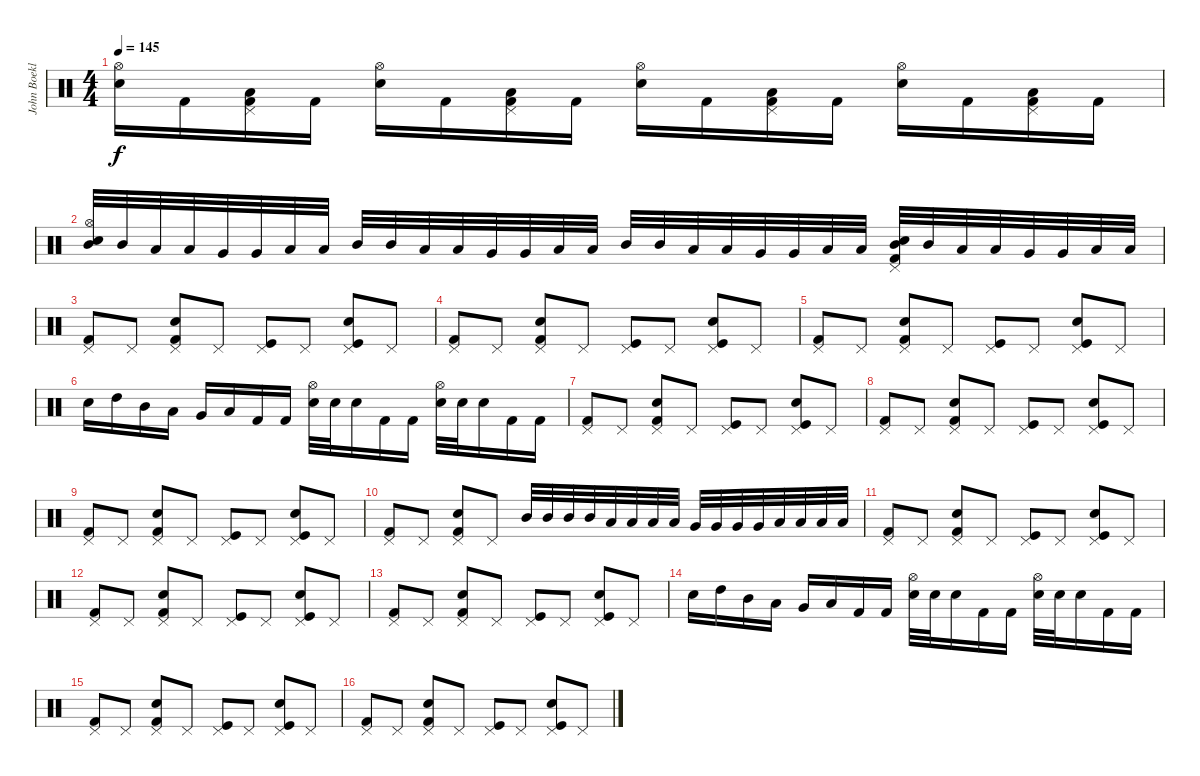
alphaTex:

\track ("John Boeklin" "John Boekl") {instrument percussion}
\staff {score}
\articulation defaults
\ts (4 4)
\tempo 145
\clef neutral
\ks c
("Electric Snare (hit)" "Hi-Hat (open)").16{dy f} "Kick (hit) 2".16 ("Low Floor Tom (hit)" "Pedal Hi-Hat (hit)" "Kick (hit) 2").16 "Kick (hit) 2".16 ("Electric Snare (hit)" "Hi-Hat (open)").16 "Kick (hit) 2".16 ("Low Floor Tom (hit)" "Pedal Hi-Hat (hit)" "Kick (hit) 2").16 "Kick (hit) 2".16 ("Electric Snare (hit)" "Hi-Hat (open)").16 "Kick (hit) 2".16 ("Low Floor Tom (hit)" "Pedal Hi-Hat (hit)" "Kick (hit) 2").16 "Kick (hit) 2".16 ("Electric Snare (hit)" "Hi-Hat (open)").16 "Kick (hit) 2".16 ("Low Floor Tom (hit)" "Pedal Hi-Hat (hit)" "Kick (hit) 2").16 "Kick (hit) 2".16 |
("Electric Snare (hit)" "Hi-Hat (open)" "Mid Tom (hit)").32 "Mid Tom (hit)".32 "Low Tom (hit)".32 "Low Tom (hit)".32 "Very Low Tom (hit)".32 "Very Low Tom (hit)".32 "Low Floor Tom (hit)".32 "Low Floor Tom (hit)".32 "Mid Tom (hit)".32 "Mid Tom (hit)".32 "Low Tom (hit)".32 "Low Tom (hit)".32 "Very Low Tom (hit)".32 "Very Low Tom (hit)".32 "Low Floor Tom (hit)".32 "Low Floor Tom (hit)".32 "Mid Tom (hit)".32 "Mid Tom (hit)".32 "Low Tom (hit)".32 "Low Tom (hit)".32 "Very Low Tom (hit)".32 "Very Low Tom (hit)".32 "Low Floor Tom (hit)".32 "Low Floor Tom (hit)".32 ("Electric Snare (hit)" "Pedal Hi-Hat (hit)" "Mid Tom (hit)" "Kick (hit) 2").32 "Mid Tom (hit)".32 "Low Tom (hit)".32 "Low Tom (hit)".32 "Very Low Tom (hit)".32 "Very Low Tom (hit)".32 "Low Floor Tom (hit)".32 "Low Floor Tom (hit)".32 |
("Pedal Hi-Hat (hit)" "Kick (hit) 2").8 "Pedal Hi-Hat (hit)".8 ("Pedal Hi-Hat (hit)" "Electric Snare (hit)" "Kick (hit) 2").8 "Pedal Hi-Hat (hit)".8 ("Pedal Hi-Hat (hit)" "Kick (hit)").8 "Pedal Hi-Hat (hit)".8 ("Pedal Hi-Hat (hit)" "Electric Snare (hit)" "Kick (hit)").8 "Pedal Hi-Hat (hit)".8 |
("Pedal Hi-Hat (hit)" "Kick (hit) 2").8 "Pedal Hi-Hat (hit)".8 ("Pedal Hi-Hat (hit)" "Electric Snare (hit)" "Kick (hit) 2").8 "Pedal Hi-Hat (hit)".8 ("Pedal Hi-Hat (hit)" "Kick (hit)").8 "Pedal Hi-Hat (hit)".8 ("Pedal Hi-Hat (hit)" "Electric Snare (hit)" "Kick (hit)").8 "Pedal Hi-Hat (hit)".8 |
("Pedal Hi-Hat (hit)" "Kick (hit) 2").8 "Pedal Hi-Hat (hit)".8 ("Pedal Hi-Hat (hit)" "Electric Snare (hit)" "Kick (hit) 2").8 "Pedal Hi-Hat (hit)".8 ("Pedal Hi-Hat (hit)" "Kick (hit)").8 "Pedal Hi-Hat (hit)".8 ("Pedal Hi-Hat (hit)" "Electric Snare (hit)" "Kick (hit)").8 "Pedal Hi-Hat (hit)".8 |
"Electric Snare (hit)".16 "High Tom (hit)".16 "Mid Tom (hit)".16 "Low Tom (hit)".16 "Very Low Tom (hit)".16 "Low Floor Tom (hit)".16 "Kick (hit) 2".16 "Kick (hit) 2".16 ("Hi-Hat (open)" "Electric Snare (hit)").32 "Electric Snare (hit)".32 "Electric Snare (hit)".16 "Kick (hit) 2".16 "Kick (hit) 2".16 ("Hi-Hat (open)" "Electric Snare (hit)").32 "Electric Snare (hit)".32 "Electric Snare (hit)".16 "Kick (hit) 2".16 "Kick (hit) 2".16 |
("Pedal Hi-Hat (hit)" "Kick (hit) 2").8 "Pedal Hi-Hat (hit)".8 ("Pedal Hi-Hat (hit)" "Electric Snare (hit)" "Kick (hit) 2").8 "Pedal Hi-Hat (hit)".8 ("Pedal Hi-Hat (hit)" "Kick (hit)").8 "Pedal Hi-Hat (hit)".8 ("Pedal Hi-Hat (hit)" "Electric Snare (hit)" "Kick (hit)").8 "Pedal Hi-Hat (hit)".8 |
("Pedal Hi-Hat (hit)" "Kick (hit) 2").8 "Pedal Hi-Hat (hit)".8 ("Pedal Hi-Hat (hit)" "Electric Snare (hit)" "Kick (hit) 2").8 "Pedal Hi-Hat (hit)".8 ("Pedal Hi-Hat (hit)" "Kick (hit)").8 "Pedal Hi-Hat (hit)".8 ("Pedal Hi-Hat (hit)" "Electric Snare (hit)" "Kick (hit)").8 "Pedal Hi-Hat (hit)".8 |
("Pedal Hi-Hat (hit)" "Kick (hit) 2").8 "Pedal Hi-Hat (hit)".8 ("Pedal Hi-Hat (hit)" "Electric Snare (hit)" "Kick (hit) 2").8 "Pedal Hi-Hat (hit)".8 ("Pedal Hi-Hat (hit)" "Kick (hit)").8 "Pedal Hi-Hat (hit)".8 ("Pedal Hi-Hat (hit)" "Electric Snare (hit)" "Kick (hit)").8 "Pedal Hi-Hat (hit)".8 |
("Pedal Hi-Hat (hit)" "Kick (hit) 2").8 "Pedal Hi-Hat (hit)".8 ("Pedal Hi-Hat (hit)" "Electric Snare (hit)" "Kick (hit) 2").8 "Pedal Hi-Hat (hit)".8 "Mid Tom (hit)".32 "Mid Tom (hit)".32 "Mid Tom (hit)".32 "Mid Tom (hit)".32 "Low Tom (hit)".32 "Low Tom (hit)".32 "Low Tom (hit)".32 "Low Tom (hit)".32 "Very Low Tom (hit)".32 "Very Low Tom (hit)".32 "Very Low Tom (hit)".32 "Very Low Tom (hit)".32 "Low Floor Tom (hit)".32 "Low Floor Tom (hit)".32 "Low Floor Tom (hit)".32 "Low Floor Tom (hit)".32 |
("Pedal Hi-Hat (hit)" "Kick (hit) 2").8 "Pedal Hi-Hat (hit)".8 ("Pedal Hi-Hat (hit)" "Electric Snare (hit)" "Kick (hit) 2").8 "Pedal Hi-Hat (hit)".8 ("Pedal Hi-Hat (hit)" "Kick (hit)").8 "Pedal Hi-Hat (hit)".8 ("Pedal Hi-Hat (hit)" "Electric Snare (hit)" "Kick (hit)").8 "Pedal Hi-Hat (hit)".8 |
("Pedal Hi-Hat (hit)" "Kick (hit) 2").8 "Pedal Hi-Hat (hit)".8 ("Pedal Hi-Hat (hit)" "Electric Snare (hit)" "Kick (hit) 2").8 "Pedal Hi-Hat (hit)".8 ("Pedal Hi-Hat (hit)" "Kick (hit)").8 "Pedal Hi-Hat (hit)".8 ("Pedal Hi-Hat (hit)" "Electric Snare (hit)" "Kick (hit)").8 "Pedal Hi-Hat (hit)".8 |
("Pedal Hi-Hat (hit)" "Kick (hit) 2").8 "Pedal Hi-Hat (hit)".8 ("Pedal Hi-Hat (hit)" "Electric Snare (hit)" "Kick (hit) 2").8 "Pedal Hi-Hat (hit)".8 ("Pedal Hi-Hat (hit)" "Kick (hit)").8 "Pedal Hi-Hat (hit)".8 ("Pedal Hi-Hat (hit)" "Electric Snare (hit)" "Kick (hit)").8 "Pedal Hi-Hat (hit)".8 |
"Electric Snare (hit)".16 "High Tom (hit)".16 "Mid Tom (hit)".16 "Low Tom (hit)".16 "Very Low Tom (hit)".16 "Low Floor Tom (hit)".16 "Kick (hit) 2".16 "Kick (hit) 2".16 ("Hi-Hat (open)" "Electric Snare (hit)").32 "Electric Snare (hit)".32 "Electric Snare (hit)".16 "Kick (hit) 2".16 "Kick (hit) 2".16 ("Hi-Hat (open)" "Electric Snare (hit)").32 "Electric Snare (hit)".32 "Electric Snare (hit)".16 "Kick (hit) 2".16 "Kick (hit) 2".16 |
("Pedal Hi-Hat (hit)" "Kick (hit) 2").8 "Pedal Hi-Hat (hit)".8 ("Pedal Hi-Hat (hit)" "Electric Snare (hit)" "Kick (hit) 2").8 "Pedal Hi-Hat (hit)".8 ("Pedal Hi-Hat (hit)" "Kick (hit)").8 "Pedal Hi-Hat (hit)".8 ("Pedal Hi-Hat (hit)" "Electric Snare (hit)" "Kick (hit)").8 "Pedal Hi-Hat (hit)".8 |
("Pedal Hi-Hat (hit)" "Kick (hit) 2").8 "Pedal Hi-Hat (hit)".8 ("Pedal Hi-Hat (hit)" "Electric Snare (hit)" "Kick (hit) 2").8 "Pedal Hi-Hat (hit)".8 ("Pedal Hi-Hat (hit)" "Kick (hit)").8 "Pedal Hi-Hat (hit)".8 ("Pedal Hi-Hat (hit)" "Electric Snare (hit)" "Kick (hit)").8 "Pedal Hi-Hat (hit)".8
